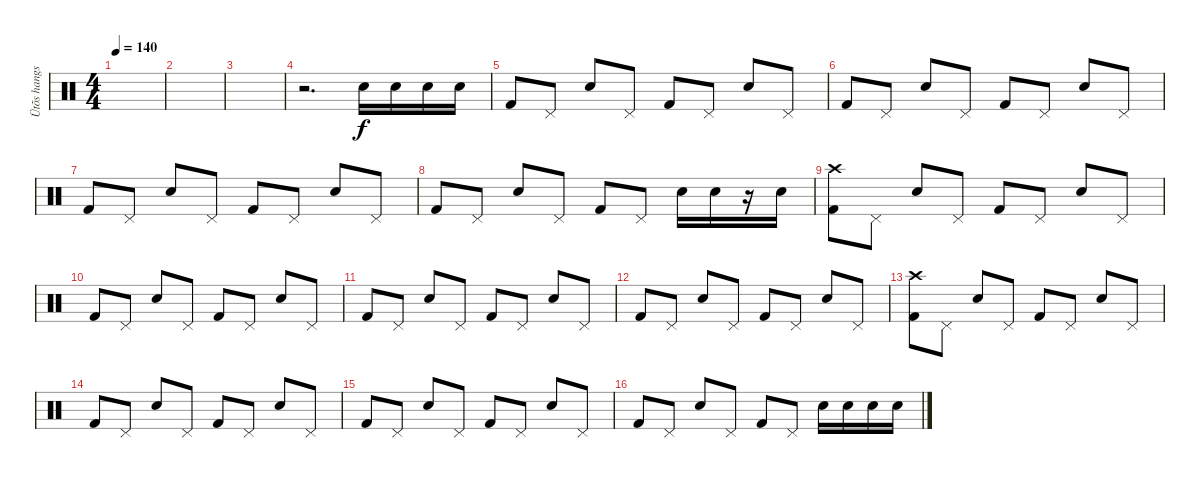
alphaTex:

\track ("Ütõs hangszer" "Ütõs hangs") {instrument percussion}
\staff {score}
\articulation defaults
\ts (4 4)
\tempo 140
\clef neutral
\ks c
|
|
|
r.2{d} "Snare (hit) 2".16 "Snare (hit) 2".16 "Snare (hit) 2".16 "Snare (hit) 2".16 |
"Kick (hit) 2".8 "Pedal Hi-Hat (hit)".8 "Snare (hit) 2".8 "Pedal Hi-Hat (hit)".8 "Kick (hit) 2".8 "Pedal Hi-Hat (hit)".8 "Snare (hit) 2".8 "Pedal Hi-Hat (hit)".8 |
"Kick (hit) 2".8 "Pedal Hi-Hat (hit)".8 "Snare (hit) 2".8 "Pedal Hi-Hat (hit)".8 "Kick (hit) 2".8 "Pedal Hi-Hat (hit)".8 "Snare (hit) 2".8 "Pedal Hi-Hat (hit)".8 |
"Kick (hit) 2".8 "Pedal Hi-Hat (hit)".8 "Snare (hit) 2".8 "Pedal Hi-Hat (hit)".8 "Kick (hit) 2".8 "Pedal Hi-Hat (hit)".8 "Snare (hit) 2".8 "Pedal Hi-Hat (hit)".8 |
"Kick (hit) 2".8 "Pedal Hi-Hat (hit)".8 "Snare (hit) 2".8 "Pedal Hi-Hat (hit)".8 "Kick (hit) 2".8 "Pedal Hi-Hat (hit)".8 "Snare (hit) 2".16 "Snare (hit) 2".16 r.16 "Snare (hit) 2".16 |
("Kick (hit) 2" "Crash high (hit)").8 "Pedal Hi-Hat (hit)".8 "Snare (hit) 2".8 "Pedal Hi-Hat (hit)".8 "Kick (hit) 2".8 "Pedal Hi-Hat (hit)".8 "Snare (hit) 2".8 "Pedal Hi-Hat (hit)".8 |
"Kick (hit) 2".8 "Pedal Hi-Hat (hit)".8 "Snare (hit) 2".8 "Pedal Hi-Hat (hit)".8 "Kick (hit) 2".8 "Pedal Hi-Hat (hit)".8 "Snare (hit) 2".8 "Pedal Hi-Hat (hit)".8 |
"Kick (hit) 2".8 "Pedal Hi-Hat (hit)".8 "Snare (hit) 2".8 "Pedal Hi-Hat (hit)".8 "Kick (hit) 2".8 "Pedal Hi-Hat (hit)".8 "Snare (hit) 2".8 "Pedal Hi-Hat (hit)".8 |
"Kick (hit) 2".8 "Pedal Hi-Hat (hit)".8 "Snare (hit) 2".8 "Pedal Hi-Hat (hit)".8 "Kick (hit) 2".8 "Pedal Hi-Hat (hit)".8 "Snare (hit) 2".8 "Pedal Hi-Hat (hit)".8 |
("Kick (hit) 2" "Crash high (hit)").8 "Pedal Hi-Hat (hit)".8 "Snare (hit) 2".8 "Pedal Hi-Hat (hit)".8 "Kick (hit) 2".8 "Pedal Hi-Hat (hit)".8 "Snare (hit) 2".8 "Pedal Hi-Hat (hit)".8 |
"Kick (hit) 2".8 "Pedal Hi-Hat (hit)".8 "Snare (hit) 2".8 "Pedal Hi-Hat (hit)".8 "Kick (hit) 2".8 "Pedal Hi-Hat (hit)".8 "Snare (hit) 2".8 "Pedal Hi-Hat (hit)".8 |
"Kick (hit) 2".8 "Pedal Hi-Hat (hit)".8 "Snare (hit) 2".8 "Pedal Hi-Hat (hit)".8 "Kick (hit) 2".8 "Pedal Hi-Hat (hit)".8 "Snare (hit) 2".8 "Pedal Hi-Hat (hit)".8 |
"Kick (hit) 2".8 "Pedal Hi-Hat (hit)".8 "Snare (hit) 2".8 "Pedal Hi-Hat (hit)".8 "Kick (hit) 2".8 "Pedal Hi-Hat (hit)".8 "Snare (hit) 2".16 "Snare (hit) 2".16 "Snare (hit) 2".16 "Snare (hit) 2".16
